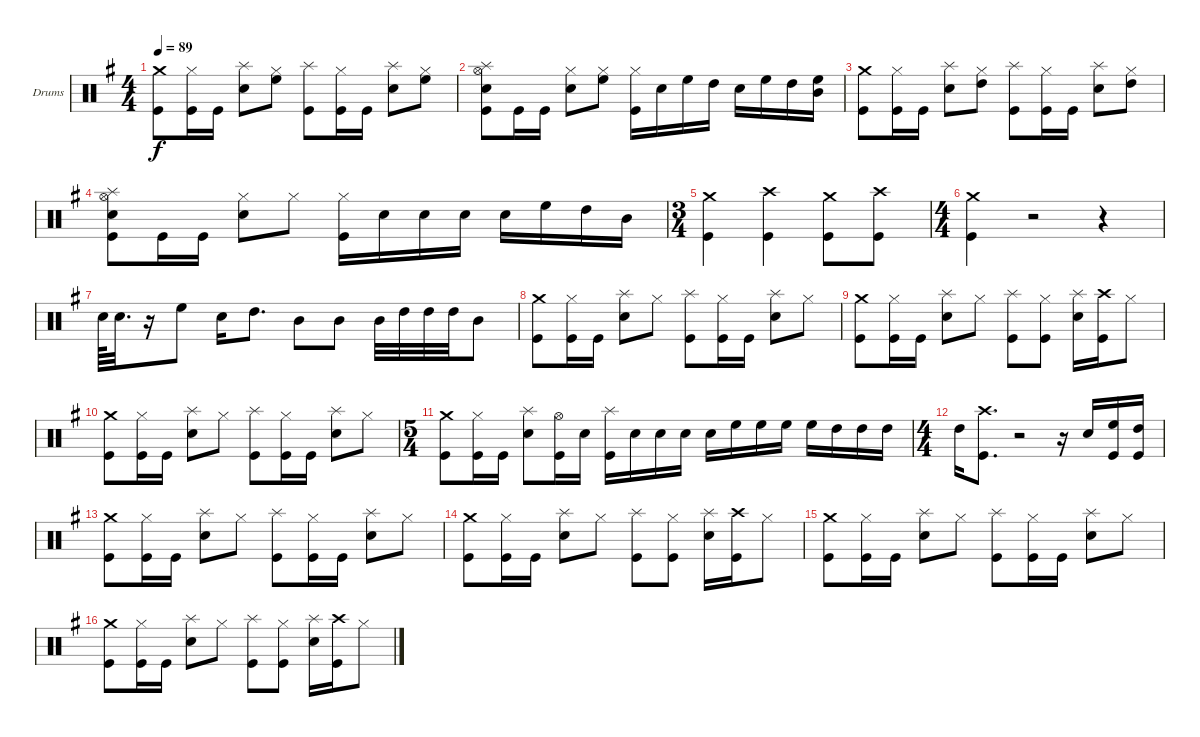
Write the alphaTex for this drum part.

\bracketExtendMode groupsimilarinstruments
\firstSystemTrackNameOrientation horizontal
\otherSystemsTrackNameOrientation horizontal
\track ("Drumkit" "Drums") {instrument percussion}
\staff {score}
\articulation defaults
\ts (4 4)
\tempo 89
\clef neutral
\scale
0.46747
\ks eminor
("Kick (hit)" "Crash medium (hit)").8{dy f} ("Kick (hit)" "Hi-Hat (closed)").16 "Kick (hit)".16 ("Snare (hit) 2" "Splash (hit)").8 ("Hi-Hat (closed)" "High Floor Tom (hit)").8 ("Kick (hit)" "Splash (hit)").8 ("Kick (hit)" "Hi-Hat (closed)").16 "Kick (hit)".16 ("Snare (hit) 2" "Splash (hit)").8 ("Hi-Hat (closed)" "High Floor Tom (hit)").8 |
\scale
0.53253 ("Kick (hit)" "Snare (hit) 2" "Hi-Hat (open)" "Splash (hit)").8 "Kick (hit)".16 "Kick (hit)".16 ("Snare (hit) 2" "Hi-Hat (closed)").8 ("Hi-Hat (closed)" "High Floor Tom (hit)").8 ("Kick (hit)" "Hi-Hat (closed)").16 "Snare (hit) 2".16 "High Floor Tom (hit)".16 "High Tom (hit)".16 "Snare (hit) 2".16 "High Floor Tom (hit)".16 "High Tom (hit)".16 ("Mid Tom (hit)" "High Floor Tom (hit)").16 |
\scale
0.46747 ("Kick (hit)" "Crash medium (hit)").8 ("Kick (hit)" "Hi-Hat (closed)").16 "Kick (hit)".16 ("Snare (hit) 2" "Splash (hit)").8 ("Hi-Hat (closed)" "High Tom (hit)").8 ("Kick (hit)" "Splash (hit)").8 ("Kick (hit)" "Hi-Hat (closed)").16 "Kick (hit)".16 ("Snare (hit) 2" "Splash (hit)").8 ("Hi-Hat (closed)" "High Tom (hit)").8 |
\scale
0.53253 ("Kick (hit)" "Snare (hit) 2" "Hi-Hat (open)" "Splash (hit)").8 "Kick (hit)".16 "Kick (hit)".16 ("Snare (hit) 2" "Hi-Hat (closed)").8 "Hi-Hat (closed)".8 ("Kick (hit)" "Hi-Hat (closed)").16 "Snare (hit) 2".16 "Snare (hit) 2".16 "Snare (hit) 2".16 "Snare (hit) 2".16 "High Floor Tom (hit)".16 "High Tom (hit)".16 "Mid Tom (hit)".16 |
\ts (3 4)
\scale
0.5 ("Kick (hit)" "Crash medium (hit)").4 ("Kick (hit)" "Crash high (hit)").4 ("Kick (hit)" "Crash medium (hit)").8 ("Kick (hit)" "Crash high (hit)").8 |
\ts (4 4)
\scale
0.5 ("Kick (hit)" "Crash medium (hit)").4 r.2 r.4 |
\scale
0.622568 "Snare (hit) 2".64 "Snare (hit) 2".32{d} r.16 "High Floor Tom (hit)".8 "Snare (hit) 2".16 "High Tom (hit)".8{d} "Mid Tom (hit)".8 "Mid Tom (hit)".8 "Mid Tom (hit)".32 "High Tom (hit)".32 "High Tom (hit)".32 "High Tom (hit)".32 "Mid Tom (hit)".8 |
\scale
0.377432 ("Kick (hit)" "Crash medium (hit)").8 ("Kick (hit)" "Hi-Hat (closed)").16 "Kick (hit)".16 ("Snare (hit) 2" "Splash (hit)").8 "Hi-Hat (closed)".8 ("Kick (hit)" "Splash (hit)").8 ("Kick (hit)" "Hi-Hat (closed)").16 "Kick (hit)".16 ("Snare (hit) 2" "Splash (hit)").8 "Hi-Hat (closed)".8 |
\scale
0.5 ("Kick (hit)" "Crash medium (hit)").8 ("Kick (hit)" "Hi-Hat (closed)").16 "Kick (hit)".16 ("Snare (hit) 2" "Splash (hit)").8 "Hi-Hat (closed)".8 ("Kick (hit)" "Splash (hit)").8 ("Kick (hit)" "Hi-Hat (closed)").8 ("Snare (hit) 2" "Splash (hit)").16 ("Kick (hit)" "Crash high (hit)").16 "Hi-Hat (closed)".8 |
\scale
0.5 ("Kick (hit)" "Crash medium (hit)").8 ("Kick (hit)" "Hi-Hat (closed)").16 "Kick (hit)".16 ("Snare (hit) 2" "Splash (hit)").8 "Hi-Hat (closed)".8 ("Kick (hit)" "Splash (hit)").8 ("Kick (hit)" "Hi-Hat (closed)").16 "Kick (hit)".16 ("Snare (hit) 2" "Splash (hit)").8 "Hi-Hat (closed)".8 |
\ts (5 4)
\scale
0.621013 ("Kick (hit)" "Crash medium (hit)").8 ("Kick (hit)" "Hi-Hat (closed)").16 "Kick (hit)".16 ("Snare (hit) 2" "Splash (hit)").8 ("Kick (hit)" "Hi-Hat (open)").16 "Snare (hit) 2".16 ("Kick (hit)" "Splash (hit)").16 "Snare (hit) 2".16 "Snare (hit) 2".16 "Snare (hit) 2".16 "Snare (hit) 2".16 "High Floor Tom (hit)".16 "High Floor Tom (hit)".16 "High Floor Tom (hit)".16 "High Floor Tom (hit)".16 "High Tom (hit)".16 "High Tom (hit)".16 "High Tom (hit)".16 |
\ts (4 4)
\scale
0.378987 "High Tom (hit)".16 ("Kick (hit)" "Crash high (hit)").8{d} r.2 r.16 "Snare (hit) 2".16 ("Kick (hit)" "High Floor Tom (hit)").16 ("Kick (hit)" "High Tom (hit)").16 |
\scale
0.5 ("Kick (hit)" "Crash medium (hit)").8 ("Kick (hit)" "Hi-Hat (closed)").16 "Kick (hit)".16 ("Snare (hit) 2" "Splash (hit)").8 "Hi-Hat (closed)".8 ("Kick (hit)" "Splash (hit)").8 ("Kick (hit)" "Hi-Hat (closed)").16 "Kick (hit)".16 ("Snare (hit) 2" "Splash (hit)").8 "Hi-Hat (closed)".8 |
\scale
0.5 ("Kick (hit)" "Crash medium (hit)").8 ("Kick (hit)" "Hi-Hat (closed)").16 "Kick (hit)".16 ("Snare (hit) 2" "Splash (hit)").8 "Hi-Hat (closed)".8 ("Kick (hit)" "Splash (hit)").8 ("Kick (hit)" "Hi-Hat (closed)").8 ("Snare (hit) 2" "Splash (hit)").16 ("Kick (hit)" "Crash high (hit)").16 "Hi-Hat (closed)".8 |
\scale
0.5 ("Kick (hit)" "Crash medium (hit)").8 ("Kick (hit)" "Hi-Hat (closed)").16 "Kick (hit)".16 ("Snare (hit) 2" "Splash (hit)").8 "Hi-Hat (closed)".8 ("Kick (hit)" "Splash (hit)").8 ("Kick (hit)" "Hi-Hat (closed)").16 "Kick (hit)".16 ("Snare (hit) 2" "Splash (hit)").8 "Hi-Hat (closed)".8 |
\scale
0.5 ("Kick (hit)" "Crash medium (hit)").8 ("Kick (hit)" "Hi-Hat (closed)").16 "Kick (hit)".16 ("Snare (hit) 2" "Splash (hit)").8 "Hi-Hat (closed)".8 ("Kick (hit)" "Splash (hit)").8 ("Kick (hit)" "Hi-Hat (closed)").8 ("Snare (hit) 2" "Splash (hit)").16 ("Kick (hit)" "Crash high (hit)").16 "Hi-Hat (closed)".8
